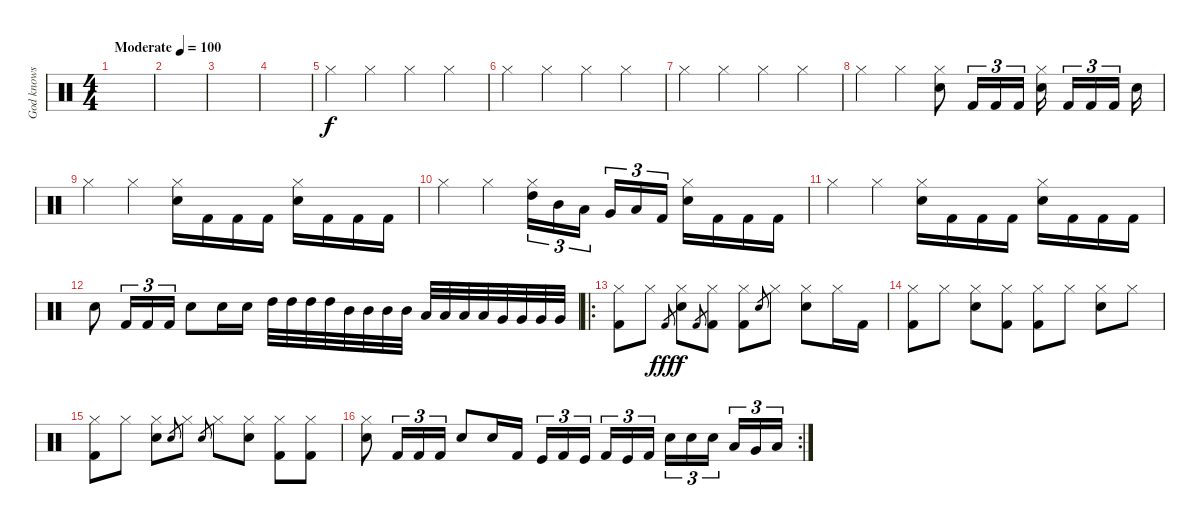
\track ("God knows" "God knows") {instrument percussion}
\staff {score}
\articulation defaults
\ts (4 4)
\tempo (100 "Moderate")
\clef neutral
\ks c
|
|
|
|
"Hi-Hat (closed)".4 "Hi-Hat (closed)".4 "Hi-Hat (closed)".4 "Hi-Hat (closed)".4 |
"Hi-Hat (closed)".4 "Hi-Hat (closed)".4 "Hi-Hat (closed)".4 "Hi-Hat (closed)".4 |
"Hi-Hat (closed)".4 "Hi-Hat (closed)".4 "Hi-Hat (closed)".4 "Hi-Hat (closed)".4 |
"Hi-Hat (closed)".4 "Hi-Hat (closed)".4 ("Snare (hit) 2" "Hi-Hat (closed)").8 "Kick (hit) 2".16{tu (3 2)} "Kick (hit) 2".16{tu (3 2)} "Kick (hit) 2".16{tu (3 2)} ("Snare (hit) 2" "Hi-Hat (closed)").16{beam splitsecondary} "Kick (hit) 2".16{tu (3 2)} "Kick (hit) 2".16{tu (3 2)} "Kick (hit) 2".16{tu (3 2) beam splitsecondary} "Snare (hit) 2".16 |
"Hi-Hat (closed)".4 "Hi-Hat (closed)".4 ("Snare (hit) 2" "Hi-Hat (closed)").16 "Kick (hit) 2".16 "Kick (hit) 2".16 "Kick (hit) 2".16 ("Snare (hit) 2" "Hi-Hat (closed)").16 "Kick (hit) 2".16 "Kick (hit) 2".16 "Kick (hit) 2".16 |
"Hi-Hat (closed)".4 "Hi-Hat (closed)".4 ("Hi-Hat (closed)" "High Tom (hit)").16{tu (3 2)} "Mid Tom (hit)".16{tu (3 2)} "Low Tom (hit)".16{tu (3 2) beam splitsecondary} "Very Low Tom (hit)".16{tu (3 2)} "Low Floor Tom (hit)".16{tu (3 2)} "Kick (hit) 2".16{tu (3 2)} ("Hi-Hat (closed)" "Snare (hit) 2").16 "Kick (hit) 2".16 "Kick (hit) 2".16 "Kick (hit) 2".16 |
"Hi-Hat (closed)".4 "Hi-Hat (closed)".4 ("Hi-Hat (closed)" "Snare (hit) 2").16 "Kick (hit) 2".16 "Kick (hit) 2".16 "Kick (hit) 2".16 ("Hi-Hat (closed)" "Snare (hit) 2").16 "Kick (hit) 2".16 "Kick (hit) 2".16 "Kick (hit) 2".16 |
"Snare (hit) 2".8 "Kick (hit) 2".16{tu (3 2)} "Kick (hit) 2".16{tu (3 2)} "Kick (hit) 2".16{tu (3 2)} "Snare (hit) 2".8 "Snare (hit) 2".16 "Snare (hit) 2".16 "High Tom (hit)".32 "High Tom (hit)".32 "High Tom (hit)".32 "High Tom (hit)".32 "Mid Tom (hit)".32 "Mid Tom (hit)".32 "Mid Tom (hit)".32 "Mid Tom (hit)".32 "Low Tom (hit)".32 "Low Tom (hit)".32 "Low Tom (hit)".32 "Low Tom (hit)".32 "Very Low Tom (hit)".32 "Very Low Tom (hit)".32 "Very Low Tom (hit)".32 "Very Low Tom (hit)".32 |
\ro
("Hi-Hat (closed)" "Kick (hit) 2").8 "Hi-Hat (closed)".8 "Kick (hit) 2".8{gr dy fff} ("Hi-Hat (closed)" "Snare (hit) 2").8{dy f} "Kick (hit) 2".8{gr} ("Hi-Hat (closed)" "Kick (hit) 2").8 ("Hi-Hat (closed)" "Kick (hit) 2").8 "Snare (hit) 2".8{gr} "Hi-Hat (closed)".8 ("Hi-Hat (closed)" "Snare (hit) 2").8 "Hi-Hat (closed)".16 "Kick (hit) 2".16 |
("Hi-Hat (closed)" "Kick (hit) 2").8 "Hi-Hat (closed)".8 ("Hi-Hat (closed)" "Snare (hit) 2").8 ("Hi-Hat (closed)" "Kick (hit) 2").8 ("Hi-Hat (closed)" "Kick (hit) 2").8 "Hi-Hat (closed)".8 ("Hi-Hat (closed)" "Snare (hit) 2").8 "Hi-Hat (closed)".8 |
("Hi-Hat (closed)" "Kick (hit) 2").8 "Hi-Hat (closed)".8 ("Hi-Hat (closed)" "Snare (hit) 2").8 "Snare (hit) 2".8{gr} "Hi-Hat (closed)".8 "Snare (hit) 2".8{gr} "Hi-Hat (closed)".8 ("Hi-Hat (closed)" "Snare (hit) 2").8 ("Hi-Hat (closed)" "Kick (hit) 2").8 ("Hi-Hat (closed)" "Kick (hit) 2").8 |
\rc 2
("Hi-Hat (closed)" "Snare (hit) 2").8 "Kick (hit) 2".16{tu (3 2)} "Kick (hit) 2".16{tu (3 2)} "Kick (hit) 2".16{tu (3 2)} "Snare (hit) 2".8 "Snare (hit) 2".16 "Kick (hit) 2".16 "Kick (hit)".16{tu (3 2)} "Kick (hit) 2".16{tu (3 2)} "Kick (hit)".16{tu (3 2) beam splitsecondary} "Kick (hit) 2".16{tu (3 2)} "Kick (hit)".16{tu (3 2)} "Kick (hit) 2".16{tu (3 2)} "Snare (hit) 2".16{tu (3 2)} "Snare (hit) 2".16{tu (3 2)} "Snare (hit) 2".16{tu (3 2) beam splitsecondary} "Low Tom (hit)".16{tu (3 2)} "Very Low Tom (hit)".16{tu (3 2)} "Low Floor Tom (hit)".16{tu (3 2)}
